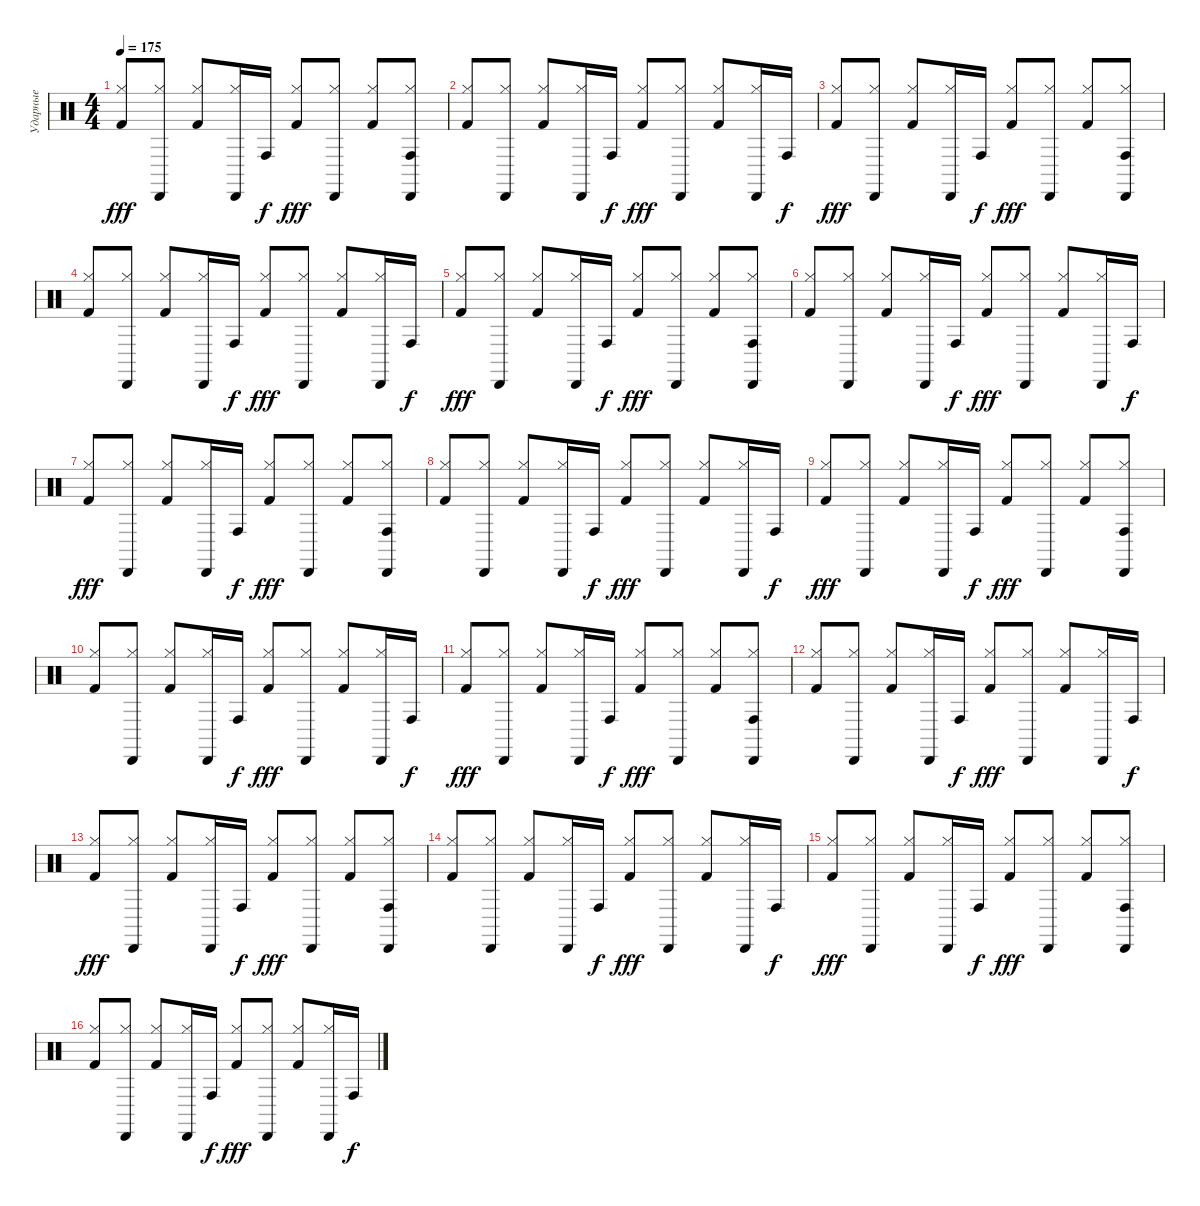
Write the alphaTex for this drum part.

\track ("Ударные" "Ударные") {instrument percussion}
\staff {score}
\articulation defaults
\ts (4 4)
\tempo 175
\clef neutral
\ks c
("Kick (hit) 2" "Hi-Hat (closed)").8{dy fff} ("Cabasa (hit)" "Hi-Hat (closed)").8 ("Hi-Hat (closed)" "Kick (hit) 2").8 ("Cabasa (hit)" "Hi-Hat (closed)").16 "Conga high (hit)".16{dy f} ("Hi-Hat (closed)" "Kick (hit) 2").8{dy fff} ("Hi-Hat (closed)" "Cabasa (hit)").8 ("Kick (hit) 2" "Hi-Hat (closed)").8 ("Hi-Hat (closed)" "Cabasa (hit)" "Conga high (hit)").8 |
("Kick (hit) 2" "Hi-Hat (closed)").8 ("Hi-Hat (closed)" "Cabasa (hit)").8 ("Kick (hit) 2" "Hi-Hat (closed)").8 ("Cabasa (hit)" "Hi-Hat (closed)").16 "Conga high (hit)".16{dy f} ("Kick (hit) 2" "Hi-Hat (closed)").8{dy fff} ("Cabasa (hit)" "Hi-Hat (closed)").8 ("Hi-Hat (closed)" "Kick (hit) 2").8 ("Hi-Hat (closed)" "Cabasa (hit)").16 "Conga high (hit)".16{dy f} |
("Kick (hit) 2" "Hi-Hat (closed)").8{dy fff} ("Cabasa (hit)" "Hi-Hat (closed)").8 ("Hi-Hat (closed)" "Kick (hit) 2").8 ("Cabasa (hit)" "Hi-Hat (closed)").16 "Conga high (hit)".16{dy f} ("Hi-Hat (closed)" "Kick (hit) 2").8{dy fff} ("Hi-Hat (closed)" "Cabasa (hit)").8 ("Kick (hit) 2" "Hi-Hat (closed)").8 ("Hi-Hat (closed)" "Cabasa (hit)" "Conga high (hit)").8 |
("Kick (hit) 2" "Hi-Hat (closed)").8 ("Hi-Hat (closed)" "Cabasa (hit)").8 ("Kick (hit) 2" "Hi-Hat (closed)").8 ("Cabasa (hit)" "Hi-Hat (closed)").16 "Conga high (hit)".16{dy f} ("Kick (hit) 2" "Hi-Hat (closed)").8{dy fff} ("Cabasa (hit)" "Hi-Hat (closed)").8 ("Hi-Hat (closed)" "Kick (hit) 2").8 ("Hi-Hat (closed)" "Cabasa (hit)").16 "Conga high (hit)".16{dy f} |
("Kick (hit) 2" "Hi-Hat (closed)").8{dy fff} ("Cabasa (hit)" "Hi-Hat (closed)").8 ("Hi-Hat (closed)" "Kick (hit) 2").8 ("Cabasa (hit)" "Hi-Hat (closed)").16 "Conga high (hit)".16{dy f} ("Hi-Hat (closed)" "Kick (hit) 2").8{dy fff} ("Hi-Hat (closed)" "Cabasa (hit)").8 ("Kick (hit) 2" "Hi-Hat (closed)").8 ("Hi-Hat (closed)" "Cabasa (hit)" "Conga high (hit)").8 |
("Kick (hit) 2" "Hi-Hat (closed)").8 ("Hi-Hat (closed)" "Cabasa (hit)").8 ("Kick (hit) 2" "Hi-Hat (closed)").8 ("Cabasa (hit)" "Hi-Hat (closed)").16 "Conga high (hit)".16{dy f} ("Kick (hit) 2" "Hi-Hat (closed)").8{dy fff} ("Cabasa (hit)" "Hi-Hat (closed)").8 ("Hi-Hat (closed)" "Kick (hit) 2").8 ("Hi-Hat (closed)" "Cabasa (hit)").16 "Conga high (hit)".16{dy f} |
("Kick (hit) 2" "Hi-Hat (closed)").8{dy fff} ("Cabasa (hit)" "Hi-Hat (closed)").8 ("Hi-Hat (closed)" "Kick (hit) 2").8 ("Cabasa (hit)" "Hi-Hat (closed)").16 "Conga high (hit)".16{dy f} ("Hi-Hat (closed)" "Kick (hit) 2").8{dy fff} ("Hi-Hat (closed)" "Cabasa (hit)").8 ("Kick (hit) 2" "Hi-Hat (closed)").8 ("Hi-Hat (closed)" "Cabasa (hit)" "Conga high (hit)").8 |
("Kick (hit) 2" "Hi-Hat (closed)").8 ("Hi-Hat (closed)" "Cabasa (hit)").8 ("Kick (hit) 2" "Hi-Hat (closed)").8 ("Cabasa (hit)" "Hi-Hat (closed)").16 "Conga high (hit)".16{dy f} ("Kick (hit) 2" "Hi-Hat (closed)").8{dy fff} ("Cabasa (hit)" "Hi-Hat (closed)").8 ("Hi-Hat (closed)" "Kick (hit) 2").8 ("Hi-Hat (closed)" "Cabasa (hit)").16 "Conga high (hit)".16{dy f} |
("Kick (hit) 2" "Hi-Hat (closed)").8{dy fff} ("Cabasa (hit)" "Hi-Hat (closed)").8 ("Hi-Hat (closed)" "Kick (hit) 2").8 ("Cabasa (hit)" "Hi-Hat (closed)").16 "Conga high (hit)".16{dy f} ("Hi-Hat (closed)" "Kick (hit) 2").8{dy fff} ("Hi-Hat (closed)" "Cabasa (hit)").8 ("Kick (hit) 2" "Hi-Hat (closed)").8 ("Hi-Hat (closed)" "Cabasa (hit)" "Conga high (hit)").8 |
("Kick (hit) 2" "Hi-Hat (closed)").8 ("Hi-Hat (closed)" "Cabasa (hit)").8 ("Kick (hit) 2" "Hi-Hat (closed)").8 ("Cabasa (hit)" "Hi-Hat (closed)").16 "Conga high (hit)".16{dy f} ("Kick (hit) 2" "Hi-Hat (closed)").8{dy fff} ("Cabasa (hit)" "Hi-Hat (closed)").8 ("Hi-Hat (closed)" "Kick (hit) 2").8 ("Hi-Hat (closed)" "Cabasa (hit)").16 "Conga high (hit)".16{dy f} |
("Kick (hit) 2" "Hi-Hat (closed)").8{dy fff} ("Cabasa (hit)" "Hi-Hat (closed)").8 ("Hi-Hat (closed)" "Kick (hit) 2").8 ("Cabasa (hit)" "Hi-Hat (closed)").16 "Conga high (hit)".16{dy f} ("Hi-Hat (closed)" "Kick (hit) 2").8{dy fff} ("Hi-Hat (closed)" "Cabasa (hit)").8 ("Kick (hit) 2" "Hi-Hat (closed)").8 ("Hi-Hat (closed)" "Cabasa (hit)" "Conga high (hit)").8 |
("Kick (hit) 2" "Hi-Hat (closed)").8 ("Hi-Hat (closed)" "Cabasa (hit)").8 ("Kick (hit) 2" "Hi-Hat (closed)").8 ("Cabasa (hit)" "Hi-Hat (closed)").16 "Conga high (hit)".16{dy f} ("Kick (hit) 2" "Hi-Hat (closed)").8{dy fff} ("Cabasa (hit)" "Hi-Hat (closed)").8 ("Hi-Hat (closed)" "Kick (hit) 2").8 ("Hi-Hat (closed)" "Cabasa (hit)").16 "Conga high (hit)".16{dy f} |
("Kick (hit) 2" "Hi-Hat (closed)").8{dy fff} ("Cabasa (hit)" "Hi-Hat (closed)").8 ("Hi-Hat (closed)" "Kick (hit) 2").8 ("Cabasa (hit)" "Hi-Hat (closed)").16 "Conga high (hit)".16{dy f} ("Hi-Hat (closed)" "Kick (hit) 2").8{dy fff} ("Hi-Hat (closed)" "Cabasa (hit)").8 ("Kick (hit) 2" "Hi-Hat (closed)").8 ("Hi-Hat (closed)" "Cabasa (hit)" "Conga high (hit)").8 |
("Kick (hit) 2" "Hi-Hat (closed)").8 ("Hi-Hat (closed)" "Cabasa (hit)").8 ("Kick (hit) 2" "Hi-Hat (closed)").8 ("Cabasa (hit)" "Hi-Hat (closed)").16 "Conga high (hit)".16{dy f} ("Kick (hit) 2" "Hi-Hat (closed)").8{dy fff} ("Cabasa (hit)" "Hi-Hat (closed)").8 ("Hi-Hat (closed)" "Kick (hit) 2").8 ("Hi-Hat (closed)" "Cabasa (hit)").16 "Conga high (hit)".16{dy f} |
("Kick (hit) 2" "Hi-Hat (closed)").8{dy fff} ("Cabasa (hit)" "Hi-Hat (closed)").8 ("Hi-Hat (closed)" "Kick (hit) 2").8 ("Cabasa (hit)" "Hi-Hat (closed)").16 "Conga high (hit)".16{dy f} ("Hi-Hat (closed)" "Kick (hit) 2").8{dy fff} ("Hi-Hat (closed)" "Cabasa (hit)").8 ("Kick (hit) 2" "Hi-Hat (closed)").8 ("Hi-Hat (closed)" "Cabasa (hit)" "Conga high (hit)").8 |
("Kick (hit) 2" "Hi-Hat (closed)").8 ("Hi-Hat (closed)" "Cabasa (hit)").8 ("Kick (hit) 2" "Hi-Hat (closed)").8 ("Cabasa (hit)" "Hi-Hat (closed)").16 "Conga high (hit)".16{dy f} ("Kick (hit) 2" "Hi-Hat (closed)").8{dy fff} ("Cabasa (hit)" "Hi-Hat (closed)").8 ("Hi-Hat (closed)" "Kick (hit) 2").8 ("Hi-Hat (closed)" "Cabasa (hit)").16 "Conga high (hit)".16{dy f}
